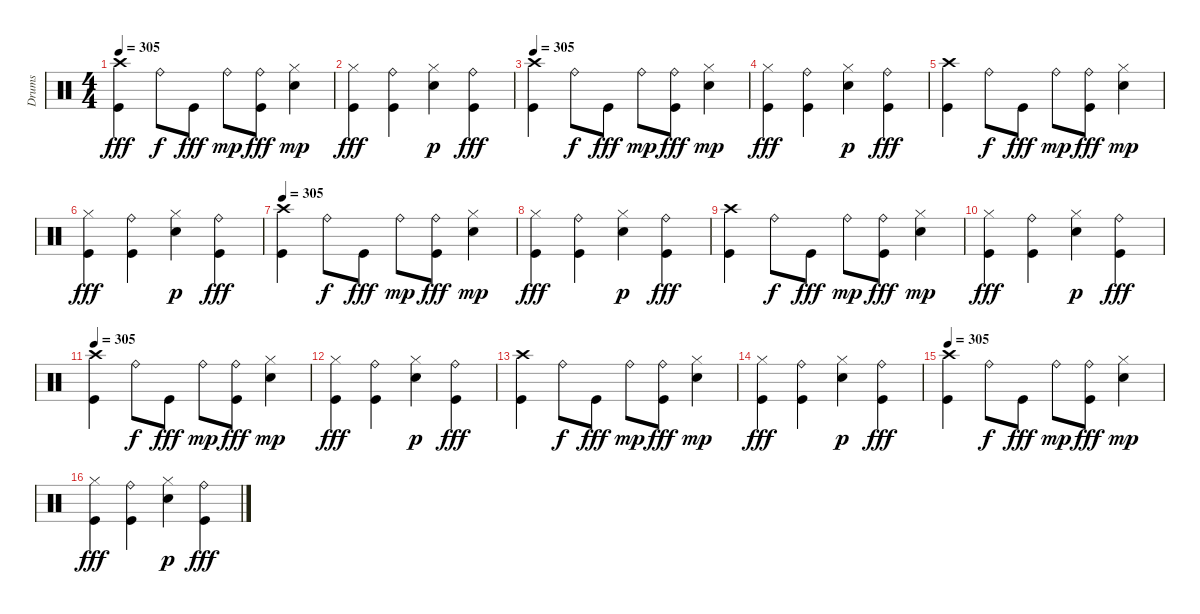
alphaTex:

\track ("Drums" "Drums") {instrument percussion}
\staff {score}
\articulation defaults
\ts (4 4)
\tempo 305
\clef neutral
\ks c
("Crash high (hit)" "Kick (hit)").4{dy fff} "Ride (bell)".8{dy f} "Kick (hit)".8{dy fff} "Ride (bell)".8{dy mp} ("Ride (bell)" "Kick (hit)").8{dy fff} ("Hi-Hat (closed)" "Electric Snare (hit)").4{dy mp} |
("Hi-Hat (closed)" "Kick (hit)").4{dy fff} ("Ride (bell)" "Kick (hit)").4 ("Hi-Hat (closed)" "Electric Snare (hit)").4{dy p} ("Ride (bell)" "Kick (hit)").4{dy fff} |
\tempo 305
("Crash high (hit)" "Kick (hit)").4 "Ride (bell)".8{dy f} "Kick (hit)".8{dy fff} "Ride (bell)".8{dy mp} ("Ride (bell)" "Kick (hit)").8{dy fff} ("Hi-Hat (closed)" "Electric Snare (hit)").4{dy mp} |
("Hi-Hat (closed)" "Kick (hit)").4{dy fff} ("Ride (bell)" "Kick (hit)").4 ("Hi-Hat (closed)" "Electric Snare (hit)").4{dy p} ("Ride (bell)" "Kick (hit)").4{dy fff} |
("Crash high (hit)" "Kick (hit)").4 "Ride (bell)".8{dy f} "Kick (hit)".8{dy fff} "Ride (bell)".8{dy mp} ("Ride (bell)" "Kick (hit)").8{dy fff} ("Hi-Hat (closed)" "Electric Snare (hit)").4{dy mp} |
("Hi-Hat (closed)" "Kick (hit)").4{dy fff} ("Ride (bell)" "Kick (hit)").4 ("Hi-Hat (closed)" "Electric Snare (hit)").4{dy p} ("Ride (bell)" "Kick (hit)").4{dy fff} |
\tempo 305
("Crash high (hit)" "Kick (hit)").4 "Ride (bell)".8{dy f} "Kick (hit)".8{dy fff} "Ride (bell)".8{dy mp} ("Ride (bell)" "Kick (hit)").8{dy fff} ("Hi-Hat (closed)" "Electric Snare (hit)").4{dy mp} |
("Hi-Hat (closed)" "Kick (hit)").4{dy fff} ("Ride (bell)" "Kick (hit)").4 ("Hi-Hat (closed)" "Electric Snare (hit)").4{dy p} ("Ride (bell)" "Kick (hit)").4{dy fff} |
("Crash high (hit)" "Kick (hit)").4 "Ride (bell)".8{dy f} "Kick (hit)".8{dy fff} "Ride (bell)".8{dy mp} ("Ride (bell)" "Kick (hit)").8{dy fff} ("Hi-Hat (closed)" "Electric Snare (hit)").4{dy mp} |
("Hi-Hat (closed)" "Kick (hit)").4{dy fff} ("Ride (bell)" "Kick (hit)").4 ("Hi-Hat (closed)" "Electric Snare (hit)").4{dy p} ("Ride (bell)" "Kick (hit)").4{dy fff} |
\tempo 305
("Crash high (hit)" "Kick (hit)").4 "Ride (bell)".8{dy f} "Kick (hit)".8{dy fff} "Ride (bell)".8{dy mp} ("Ride (bell)" "Kick (hit)").8{dy fff} ("Hi-Hat (closed)" "Electric Snare (hit)").4{dy mp} |
("Hi-Hat (closed)" "Kick (hit)").4{dy fff} ("Ride (bell)" "Kick (hit)").4 ("Hi-Hat (closed)" "Electric Snare (hit)").4{dy p} ("Ride (bell)" "Kick (hit)").4{dy fff} |
("Crash high (hit)" "Kick (hit)").4 "Ride (bell)".8{dy f} "Kick (hit)".8{dy fff} "Ride (bell)".8{dy mp} ("Ride (bell)" "Kick (hit)").8{dy fff} ("Hi-Hat (closed)" "Electric Snare (hit)").4{dy mp} |
("Hi-Hat (closed)" "Kick (hit)").4{dy fff} ("Ride (bell)" "Kick (hit)").4 ("Hi-Hat (closed)" "Electric Snare (hit)").4{dy p} ("Ride (bell)" "Kick (hit)").4{dy fff} |
\tempo 305
("Crash high (hit)" "Kick (hit)").4 "Ride (bell)".8{dy f} "Kick (hit)".8{dy fff} "Ride (bell)".8{dy mp} ("Ride (bell)" "Kick (hit)").8{dy fff} ("Hi-Hat (closed)" "Electric Snare (hit)").4{dy mp} |
("Hi-Hat (closed)" "Kick (hit)").4{dy fff} ("Ride (bell)" "Kick (hit)").4 ("Hi-Hat (closed)" "Electric Snare (hit)").4{dy p} ("Ride (bell)" "Kick (hit)").4{dy fff}
